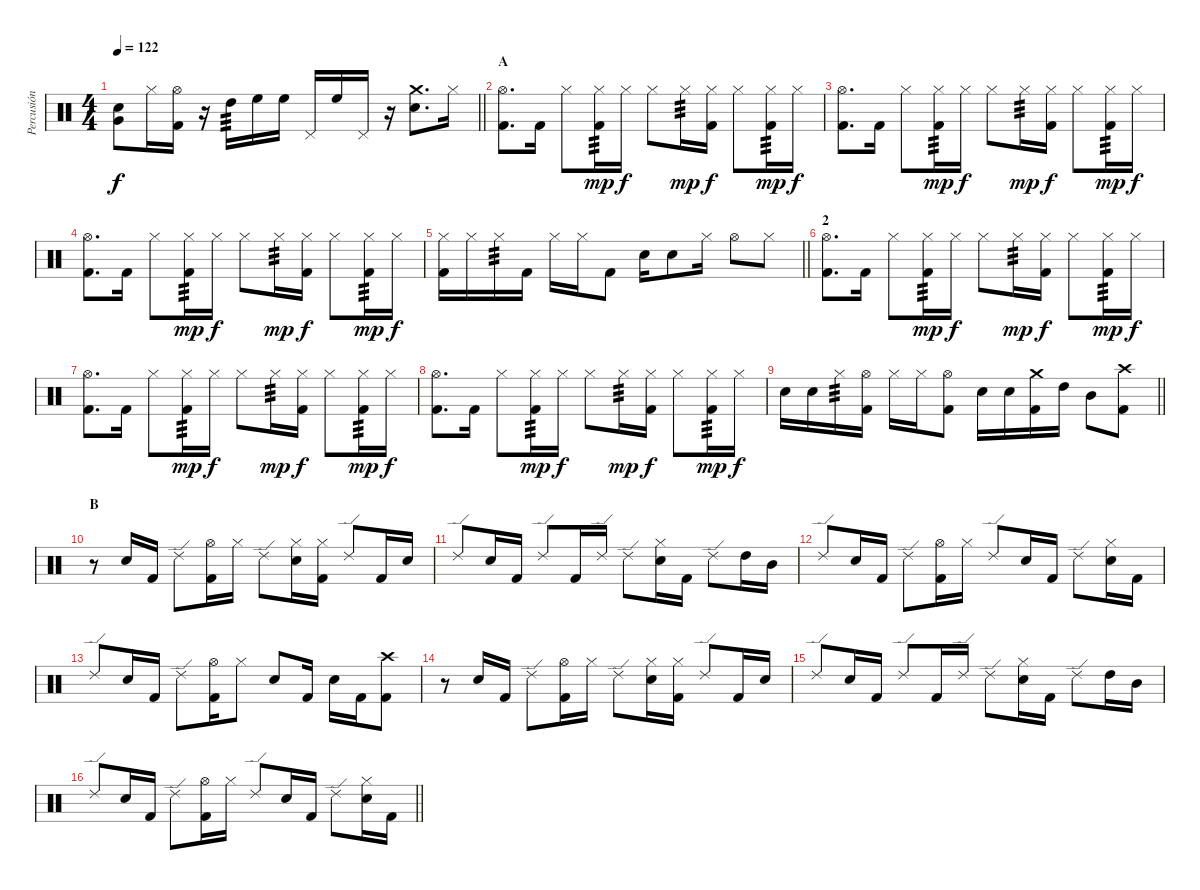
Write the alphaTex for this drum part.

\track ("Percusión" "Percusión") {instrument percussion}
\staff {score}
\articulation defaults
\ts (4 4)
\tempo 122
\clef neutral
\barLineRight lightlight
\ks c
("Electric Snare (hit)" "Very Low Tom (hit)").8{dy f} "Hi-Hat (closed)".16 ("Hi-Hat (open)" "Kick (hit) 2").16 r.16 "High Tom (hit)".16{tp 3} "High Floor Tom (hit)".16 "High Floor Tom (hit)".16 "Pedal Hi-Hat (hit)".16 "High Floor Tom (hit)".16 "Pedal Hi-Hat (hit)".16 r.16 ("Electric Snare (hit)" "Crash medium (hit)").8{d} "Hi-Hat (closed)".16 |
\section ("" "A")
("Hi-Hat (open)" "Kick (hit) 2").8{d} "Kick (hit) 2".16 "Hi-Hat (closed)".8 ("Kick (hit) 2" "Hi-Hat (closed)").16{tp 3 dy mp} "Hi-Hat (closed)".16{dy f} "Hi-Hat (closed)".8 "Hi-Hat (closed)".16{tp 3 dy mp} ("Kick (hit) 2" "Hi-Hat (closed)").16{dy f} "Hi-Hat (closed)".8 ("Kick (hit) 2" "Hi-Hat (closed)").16{tp 3 dy mp} "Hi-Hat (closed)".16{dy f} |
("Hi-Hat (open)" "Kick (hit) 2").8{d} "Kick (hit) 2".16 "Hi-Hat (closed)".8 ("Kick (hit) 2" "Hi-Hat (closed)").16{tp 3 dy mp} "Hi-Hat (closed)".16{dy f} "Hi-Hat (closed)".8 "Hi-Hat (closed)".16{tp 3 dy mp} ("Kick (hit) 2" "Hi-Hat (closed)").16{dy f} "Hi-Hat (closed)".8 ("Kick (hit) 2" "Hi-Hat (closed)").16{tp 3 dy mp} "Hi-Hat (closed)".16{dy f} |
("Hi-Hat (open)" "Kick (hit) 2").8{d} "Kick (hit) 2".16 "Hi-Hat (closed)".8 ("Kick (hit) 2" "Hi-Hat (closed)").16{tp 3 dy mp} "Hi-Hat (closed)".16{dy f} "Hi-Hat (closed)".8 "Hi-Hat (closed)".16{tp 3 dy mp} ("Kick (hit) 2" "Hi-Hat (closed)").16{dy f} "Hi-Hat (closed)".8 ("Kick (hit) 2" "Hi-Hat (closed)").16{tp 3 dy mp} "Hi-Hat (closed)".16{dy f} |
\barLineRight lightlight
("Hi-Hat (closed)" "Kick (hit) 2").16 "Hi-Hat (closed)".16 "Hi-Hat (closed)".16{tp 3} "Kick (hit) 2".16 "Hi-Hat (closed)".16 "Hi-Hat (closed)".16 "Kick (hit) 2".8 "Electric Snare (hit)".16 "Electric Snare (hit)".8 "Hi-Hat (closed)".16 "Hi-Hat (open)".8 "Hi-Hat (closed)".8 |
\section ("" "2")
("Hi-Hat (open)" "Kick (hit) 2").8{d} "Kick (hit) 2".16 "Hi-Hat (closed)".8 ("Kick (hit) 2" "Hi-Hat (closed)").16{tp 3 dy mp} "Hi-Hat (closed)".16{dy f} "Hi-Hat (closed)".8 "Hi-Hat (closed)".16{tp 3 dy mp} ("Kick (hit) 2" "Hi-Hat (closed)").16{dy f} "Hi-Hat (closed)".8 ("Kick (hit) 2" "Hi-Hat (closed)").16{tp 3 dy mp} "Hi-Hat (closed)".16{dy f} |
("Hi-Hat (open)" "Kick (hit) 2").8{d} "Kick (hit) 2".16 "Hi-Hat (closed)".8 ("Kick (hit) 2" "Hi-Hat (closed)").16{tp 3 dy mp} "Hi-Hat (closed)".16{dy f} "Hi-Hat (closed)".8 "Hi-Hat (closed)".16{tp 3 dy mp} ("Kick (hit) 2" "Hi-Hat (closed)").16{dy f} "Hi-Hat (closed)".8 ("Kick (hit) 2" "Hi-Hat (closed)").16{tp 3 dy mp} "Hi-Hat (closed)".16{dy f} |
("Hi-Hat (open)" "Kick (hit) 2").8{d} "Kick (hit) 2".16 "Hi-Hat (closed)".8 ("Kick (hit) 2" "Hi-Hat (closed)").16{tp 3 dy mp} "Hi-Hat (closed)".16{dy f} "Hi-Hat (closed)".8 "Hi-Hat (closed)".16{tp 3 dy mp} ("Kick (hit) 2" "Hi-Hat (closed)").16{dy f} "Hi-Hat (closed)".8 ("Kick (hit) 2" "Hi-Hat (closed)").16{tp 3 dy mp} "Hi-Hat (closed)".16{dy f} |
\barLineRight lightlight "Electric Snare (hit)".16 "Electric Snare (hit)".16 "Hi-Hat (closed)".16{tp 3}
("Hi-Hat (open)" "Kick (hit) 2").16 "Hi-Hat (closed)".16 "Hi-Hat (closed)".16 ("Hi-Hat (open)" "Kick (hit) 2").8 "Electric Snare (hit)".16 "Electric Snare (hit)".16 ("Crash medium (hit)" "Kick (hit) 2").16 "High Tom (hit)".16 "Mid Tom (hit)".8 ("Crash high (hit)" "Kick (hit) 2").8 |
\section ("" "B")
r.8 "Electric Snare (hit)".16 "Kick (hit) 2".16 "Ride (edge) 2".8 ("Hi-Hat (open)" "Kick (hit) 2").16 "Hi-Hat (closed)".16 "Ride (edge) 2".8 ("Electric Snare (hit)" "Hi-Hat (closed)").16 ("Kick (hit) 2" "Hi-Hat (closed)").16 "Ride (edge) 2".8 "Kick (hit) 2".16 "Electric Snare (hit)".16 |
"Ride (edge) 2".8 "Electric Snare (hit)".16 "Kick (hit) 2".16 "Ride (edge) 2".8 "Kick (hit) 2".16 "Ride (edge) 2".16 "Ride (edge) 2".8 ("Hi-Hat (closed)" "Electric Snare (hit)").16 "Kick (hit) 2".16 "Ride (edge) 2".8 "High Tom (hit)".16 "Mid Tom (hit)".16 |
"Ride (edge) 2".8 "Electric Snare (hit)".16 "Kick (hit) 2".16 "Ride (edge) 2".8 ("Hi-Hat (open)" "Kick (hit) 2").16 "Hi-Hat (closed)".16 "Ride (edge) 2".8 "Electric Snare (hit)".16 "Kick (hit) 2".16 "Ride (edge) 2".8 ("Hi-Hat (closed)" "Electric Snare (hit)").16 "Kick (hit) 2".16 |
"Ride (edge) 2".8 "Electric Snare (hit)".16 "Kick (hit) 2".16 "Ride (edge) 2".8 ("Hi-Hat (open)" "Kick (hit) 2").16 "Hi-Hat (closed)".8 "Electric Snare (hit)".8 "Kick (hit) 2".16 "Electric Snare (hit)".16 "Kick (hit) 2".16 ("Crash high (hit)" "Kick (hit) 2").8 |
r.8 "Electric Snare (hit)".16 "Kick (hit) 2".16 "Ride (edge) 2".8 ("Hi-Hat (open)" "Kick (hit) 2").16 "Hi-Hat (closed)".16 "Ride (edge) 2".8 ("Electric Snare (hit)" "Hi-Hat (closed)").16 ("Kick (hit) 2" "Hi-Hat (closed)").16 "Ride (edge) 2".8 "Kick (hit) 2".16 "Electric Snare (hit)".16 |
"Ride (edge) 2".8 "Electric Snare (hit)".16 "Kick (hit) 2".16 "Ride (edge) 2".8 "Kick (hit) 2".16 "Ride (edge) 2".16 "Ride (edge) 2".8 ("Hi-Hat (closed)" "Electric Snare (hit)").16 "Kick (hit) 2".16 "Ride (edge) 2".8 "High Tom (hit)".16 "Mid Tom (hit)".16 |
\barLineRight lightlight "Ride (edge) 2".8 "Electric Snare (hit)".16 "Kick (hit) 2".16 "Ride (edge) 2".8
("Hi-Hat (open)" "Kick (hit) 2").16 "Hi-Hat (closed)".16 "Ride (edge) 2".8 "Electric Snare (hit)".16 "Kick (hit) 2".16 "Ride (edge) 2".8 ("Hi-Hat (closed)" "Electric Snare (hit)").16 "Kick (hit) 2".16
